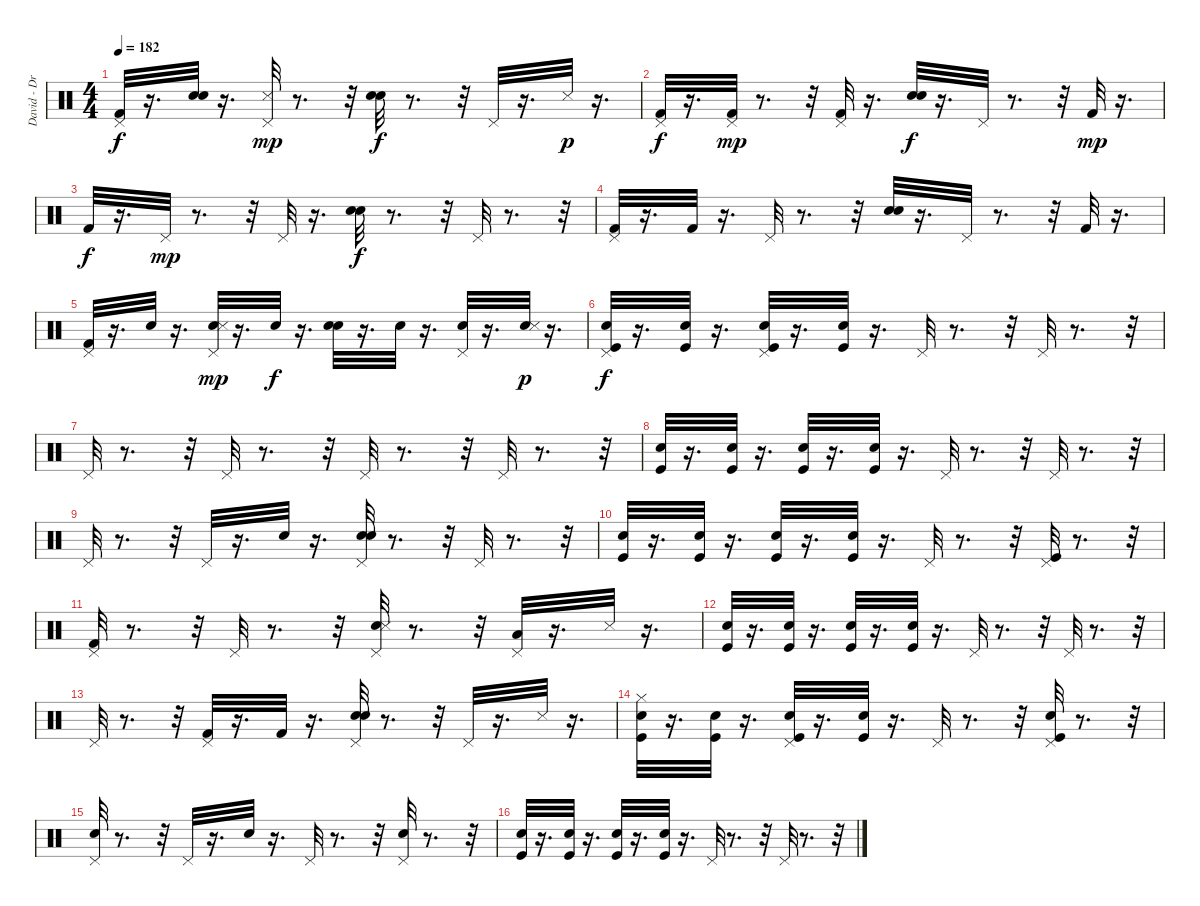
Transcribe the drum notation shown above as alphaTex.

\track ("David - Drums" "David - Dr") {instrument percussion}
\staff {score}
\articulation defaults
\ts (4 4)
\tempo 182
\clef neutral
\ks c
("Pedal Hi-Hat (hit)" "Kick (hit) 2").32{dy f} r.16{d} ("Snare (hit) 2" "Hand Clap (hit)").32 r.16{d} ("Pedal Hi-Hat (hit)" "Snare (side stick) 3").32{dy mp} r.8{d} r.32 ("Snare (hit) 2" "Electric Snare (hit)").32{dy f} r.8{d} r.32 "Pedal Hi-Hat (hit)".32 r.16{d} "Snare (side stick) 3".32{dy p} r.16{d} |
("Pedal Hi-Hat (hit)" "Kick (hit) 2").32{dy f} r.16{d} ("Kick (hit) 2" "Pedal Hi-Hat (hit)").32{dy mp} r.8{d} r.32 ("Pedal Hi-Hat (hit)" "Kick (hit) 2").32 r.16{d} ("Snare (hit) 2" "Electric Snare (hit)").32{dy f} r.16{d} "Pedal Hi-Hat (hit)".32 r.8{d} r.32 "Kick (hit) 2".32{dy mp} r.16{d} |
"Kick (hit) 2".32{dy f} r.16{d} "Pedal Hi-Hat (hit)".32{dy mp} r.8{d} r.32 "Pedal Hi-Hat (hit)".32 r.16{d} ("Snare (hit) 2" "Electric Snare (hit)").32{dy f} r.8{d} r.32 "Pedal Hi-Hat (hit)".32 r.8{d} r.32 |
("Pedal Hi-Hat (hit)" "Kick (hit) 2").32 r.16{d} "Kick (hit) 2".32 r.16{d} "Pedal Hi-Hat (hit)".32 r.8{d} r.32 ("Snare (hit) 2" "Electric Snare (hit)").32 r.16{d} "Pedal Hi-Hat (hit)".32 r.8{d} r.32 "Kick (hit) 2".32 r.16{d} |
("Pedal Hi-Hat (hit)" "Kick (hit) 2").32 r.16{d} "Electric Snare (hit)".32 r.16{d} ("Electric Snare (hit)" "Pedal Hi-Hat (hit)" "Snare (side stick) 3").32{dy mp} r.16{d} "Electric Snare (hit)".32{dy f} r.16{d} ("Snare (hit) 2" "Electric Snare (hit)").32 r.16{d} "Electric Snare (hit)".32 r.16{d} ("Electric Snare (hit)" "Pedal Hi-Hat (hit)").32 r.16{d} ("Electric Snare (hit)" "Snare (side stick) 3").32{dy p} r.16{d} |
("Pedal Hi-Hat (hit)" "Snare (hit) 2" "Kick (hit)").32{dy f} r.16{d} ("Kick (hit)" "Snare (hit) 2").32 r.16{d} ("Pedal Hi-Hat (hit)" "Snare (hit) 2" "Kick (hit)").32 r.16{d} ("Kick (hit)" "Snare (hit) 2").32 r.16{d} "Pedal Hi-Hat (hit)".32 r.8{d} r.32 "Pedal Hi-Hat (hit)".32 r.8{d} r.32 |
"Pedal Hi-Hat (hit)".32 r.8{d} r.32 "Pedal Hi-Hat (hit)".32 r.8{d} r.32 "Pedal Hi-Hat (hit)".32 r.8{d} r.32 "Pedal Hi-Hat (hit)".32 r.8{d} r.32 |
("Kick (hit)" "Snare (hit) 2").32 r.16{d} ("Kick (hit)" "Snare (hit) 2").32 r.16{d} ("Kick (hit)" "Snare (hit) 2").32 r.16{d} ("Kick (hit)" "Snare (hit) 2").32 r.16{d} "Pedal Hi-Hat (hit)".32 r.8{d} r.32 "Pedal Hi-Hat (hit)".32 r.8{d} r.32 |
"Pedal Hi-Hat (hit)".32 r.8{d} r.32 "Pedal Hi-Hat (hit)".32 r.16{d} "Hand Clap (hit)".32 r.16{d} ("Snare (hit) 2" "Electric Snare (hit)" "Pedal Hi-Hat (hit)").32 r.8{d} r.32 "Pedal Hi-Hat (hit)".32 r.8{d} r.32 |
("Kick (hit)" "Snare (hit) 2").32 r.16{d} ("Snare (hit) 2" "Kick (hit)").32 r.16{d} ("Kick (hit)" "Snare (hit) 2").32 r.16{d} ("Snare (hit) 2" "Kick (hit)").32 r.16{d} "Pedal Hi-Hat (hit)".32 r.8{d} r.32 ("Kick (hit)" "Pedal Hi-Hat (hit)").32 r.8{d} r.32 |
("Kick (hit) 2" "Pedal Hi-Hat (hit)").32 r.8{d} r.32 "Pedal Hi-Hat (hit)".32 r.8{d} r.32 ("Snare (hit) 2" "Snare (side stick) 3" "Pedal Hi-Hat (hit)").32 r.8{d} r.32 ("Low Floor Tom (hit)" "Pedal Hi-Hat (hit)").32 r.16{d} "Snare (side stick) 3".32 r.16{d} |
("Kick (hit)" "Snare (hit) 2").32 r.16{d} ("Kick (hit)" "Snare (hit) 2").32 r.16{d} ("Snare (hit) 2" "Kick (hit)").32 r.16{d} ("Snare (hit) 2" "Kick (hit)").32 r.16{d} "Pedal Hi-Hat (hit)".32 r.8{d} r.32 "Pedal Hi-Hat (hit)".32 r.8{d} r.32 |
"Pedal Hi-Hat (hit)".32 r.8{d} r.32 ("Pedal Hi-Hat (hit)" "Kick (hit) 2").32 r.16{d} "Kick (hit) 2".32 r.16{d} ("Electric Snare (hit)" "Snare (hit) 2" "Pedal Hi-Hat (hit)").32 r.8{d} r.32 "Pedal Hi-Hat (hit)".32 r.16{d} "Snare (side stick) 3".32 r.16{d} |
("Hi-Hat (closed)" "Snare (hit) 2" "Kick (hit)").32 r.16{d} ("Kick (hit)" "Snare (hit) 2").32 r.16{d} ("Pedal Hi-Hat (hit)" "Snare (hit) 2" "Kick (hit)").32 r.16{d} ("Kick (hit)" "Snare (hit) 2").32 r.16{d} "Pedal Hi-Hat (hit)".32 r.8{d} r.32 ("Kick (hit)" "Snare (hit) 2" "Pedal Hi-Hat (hit)").32 r.8{d} r.32 |
("Snare (hit) 2" "Pedal Hi-Hat (hit)").32 r.8{d} r.32 "Pedal Hi-Hat (hit)".32 r.16{d} "Snare (hit) 2".32 r.16{d} "Pedal Hi-Hat (hit)".32 r.8{d} r.32 ("Snare (hit) 2" "Pedal Hi-Hat (hit)").32 r.8{d} r.32 |
("Kick (hit)" "Snare (hit) 2").32 r.16{d} ("Kick (hit)" "Snare (hit) 2").32 r.16{d} ("Kick (hit)" "Snare (hit) 2").32 r.16{d} ("Kick (hit)" "Snare (hit) 2").32 r.16{d} "Pedal Hi-Hat (hit)".32 r.8{d} r.32 "Pedal Hi-Hat (hit)".32 r.8{d} r.32
